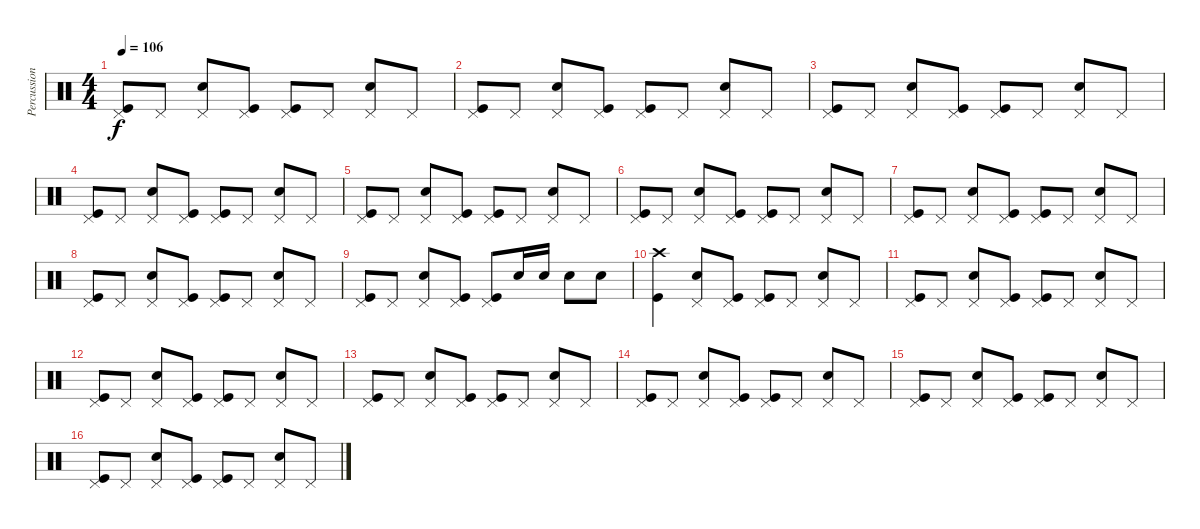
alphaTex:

\track ("Percussion" "Percussion") {instrument percussion}
\staff {score}
\articulation defaults
\ts (4 4)
\tempo 106
\clef neutral
\ks c
("Pedal Hi-Hat (hit)" "Kick (hit)").8{dy f} "Pedal Hi-Hat (hit)".8 ("Pedal Hi-Hat (hit)" "Snare (hit) 2").8 ("Pedal Hi-Hat (hit)" "Kick (hit)").8 ("Pedal Hi-Hat (hit)" "Kick (hit)").8 "Pedal Hi-Hat (hit)".8 ("Pedal Hi-Hat (hit)" "Snare (hit) 2").8 "Pedal Hi-Hat (hit)".8 |
("Pedal Hi-Hat (hit)" "Kick (hit)").8 "Pedal Hi-Hat (hit)".8 ("Pedal Hi-Hat (hit)" "Snare (hit) 2").8 ("Pedal Hi-Hat (hit)" "Kick (hit)").8 ("Pedal Hi-Hat (hit)" "Kick (hit)").8 "Pedal Hi-Hat (hit)".8 ("Pedal Hi-Hat (hit)" "Snare (hit) 2").8 "Pedal Hi-Hat (hit)".8 |
("Pedal Hi-Hat (hit)" "Kick (hit)").8 "Pedal Hi-Hat (hit)".8 ("Pedal Hi-Hat (hit)" "Snare (hit) 2").8 ("Pedal Hi-Hat (hit)" "Kick (hit)").8 ("Pedal Hi-Hat (hit)" "Kick (hit)").8 "Pedal Hi-Hat (hit)".8 ("Pedal Hi-Hat (hit)" "Snare (hit) 2").8 "Pedal Hi-Hat (hit)".8 |
("Pedal Hi-Hat (hit)" "Kick (hit)").8 "Pedal Hi-Hat (hit)".8 ("Pedal Hi-Hat (hit)" "Snare (hit) 2").8 ("Pedal Hi-Hat (hit)" "Kick (hit)").8 ("Pedal Hi-Hat (hit)" "Kick (hit)").8 "Pedal Hi-Hat (hit)".8 ("Pedal Hi-Hat (hit)" "Snare (hit) 2").8 "Pedal Hi-Hat (hit)".8 |
("Pedal Hi-Hat (hit)" "Kick (hit)").8 "Pedal Hi-Hat (hit)".8 ("Pedal Hi-Hat (hit)" "Snare (hit) 2").8 ("Pedal Hi-Hat (hit)" "Kick (hit)").8 ("Pedal Hi-Hat (hit)" "Kick (hit)").8 "Pedal Hi-Hat (hit)".8 ("Pedal Hi-Hat (hit)" "Snare (hit) 2").8 "Pedal Hi-Hat (hit)".8 |
("Pedal Hi-Hat (hit)" "Kick (hit)").8 "Pedal Hi-Hat (hit)".8 ("Pedal Hi-Hat (hit)" "Snare (hit) 2").8 ("Pedal Hi-Hat (hit)" "Kick (hit)").8 ("Pedal Hi-Hat (hit)" "Kick (hit)").8 "Pedal Hi-Hat (hit)".8 ("Pedal Hi-Hat (hit)" "Snare (hit) 2").8 "Pedal Hi-Hat (hit)".8 |
("Pedal Hi-Hat (hit)" "Kick (hit)").8 "Pedal Hi-Hat (hit)".8 ("Pedal Hi-Hat (hit)" "Snare (hit) 2").8 ("Pedal Hi-Hat (hit)" "Kick (hit)").8 ("Pedal Hi-Hat (hit)" "Kick (hit)").8 "Pedal Hi-Hat (hit)".8 ("Pedal Hi-Hat (hit)" "Snare (hit) 2").8 "Pedal Hi-Hat (hit)".8 |
("Pedal Hi-Hat (hit)" "Kick (hit)").8 "Pedal Hi-Hat (hit)".8 ("Pedal Hi-Hat (hit)" "Snare (hit) 2").8 ("Pedal Hi-Hat (hit)" "Kick (hit)").8 ("Pedal Hi-Hat (hit)" "Kick (hit)").8 "Pedal Hi-Hat (hit)".8 ("Pedal Hi-Hat (hit)" "Snare (hit) 2").8 "Pedal Hi-Hat (hit)".8 |
("Pedal Hi-Hat (hit)" "Kick (hit)").8 "Pedal Hi-Hat (hit)".8 ("Pedal Hi-Hat (hit)" "Snare (hit) 2").8 ("Pedal Hi-Hat (hit)" "Kick (hit)").8 ("Pedal Hi-Hat (hit)" "Kick (hit)").8 "Snare (hit) 2".16 "Snare (hit) 2".16 "Snare (hit) 2".8 "Snare (hit) 2".8 |
("Crash high (hit)" "Kick (hit)").4 ("Pedal Hi-Hat (hit)" "Snare (hit) 2").8 ("Pedal Hi-Hat (hit)" "Kick (hit)").8 ("Pedal Hi-Hat (hit)" "Kick (hit)").8 "Pedal Hi-Hat (hit)".8 ("Pedal Hi-Hat (hit)" "Snare (hit) 2").8 "Pedal Hi-Hat (hit)".8 |
("Pedal Hi-Hat (hit)" "Kick (hit)").8 "Pedal Hi-Hat (hit)".8 ("Pedal Hi-Hat (hit)" "Snare (hit) 2").8 ("Pedal Hi-Hat (hit)" "Kick (hit)").8 ("Pedal Hi-Hat (hit)" "Kick (hit)").8 "Pedal Hi-Hat (hit)".8 ("Pedal Hi-Hat (hit)" "Snare (hit) 2").8 "Pedal Hi-Hat (hit)".8 |
("Pedal Hi-Hat (hit)" "Kick (hit)").8 "Pedal Hi-Hat (hit)".8 ("Pedal Hi-Hat (hit)" "Snare (hit) 2").8 ("Pedal Hi-Hat (hit)" "Kick (hit)").8 ("Pedal Hi-Hat (hit)" "Kick (hit)").8 "Pedal Hi-Hat (hit)".8 ("Pedal Hi-Hat (hit)" "Snare (hit) 2").8 "Pedal Hi-Hat (hit)".8 |
("Pedal Hi-Hat (hit)" "Kick (hit)").8 "Pedal Hi-Hat (hit)".8 ("Pedal Hi-Hat (hit)" "Snare (hit) 2").8 ("Pedal Hi-Hat (hit)" "Kick (hit)").8 ("Pedal Hi-Hat (hit)" "Kick (hit)").8 "Pedal Hi-Hat (hit)".8 ("Pedal Hi-Hat (hit)" "Snare (hit) 2").8 "Pedal Hi-Hat (hit)".8 |
("Pedal Hi-Hat (hit)" "Kick (hit)").8 "Pedal Hi-Hat (hit)".8 ("Pedal Hi-Hat (hit)" "Snare (hit) 2").8 ("Pedal Hi-Hat (hit)" "Kick (hit)").8 ("Pedal Hi-Hat (hit)" "Kick (hit)").8 "Pedal Hi-Hat (hit)".8 ("Pedal Hi-Hat (hit)" "Snare (hit) 2").8 "Pedal Hi-Hat (hit)".8 |
("Pedal Hi-Hat (hit)" "Kick (hit)").8 "Pedal Hi-Hat (hit)".8 ("Pedal Hi-Hat (hit)" "Snare (hit) 2").8 ("Pedal Hi-Hat (hit)" "Kick (hit)").8 ("Pedal Hi-Hat (hit)" "Kick (hit)").8 "Pedal Hi-Hat (hit)".8 ("Pedal Hi-Hat (hit)" "Snare (hit) 2").8 "Pedal Hi-Hat (hit)".8 |
("Pedal Hi-Hat (hit)" "Kick (hit)").8 "Pedal Hi-Hat (hit)".8 ("Pedal Hi-Hat (hit)" "Snare (hit) 2").8 ("Pedal Hi-Hat (hit)" "Kick (hit)").8 ("Pedal Hi-Hat (hit)" "Kick (hit)").8 "Pedal Hi-Hat (hit)".8 ("Pedal Hi-Hat (hit)" "Snare (hit) 2").8 "Pedal Hi-Hat (hit)".8
